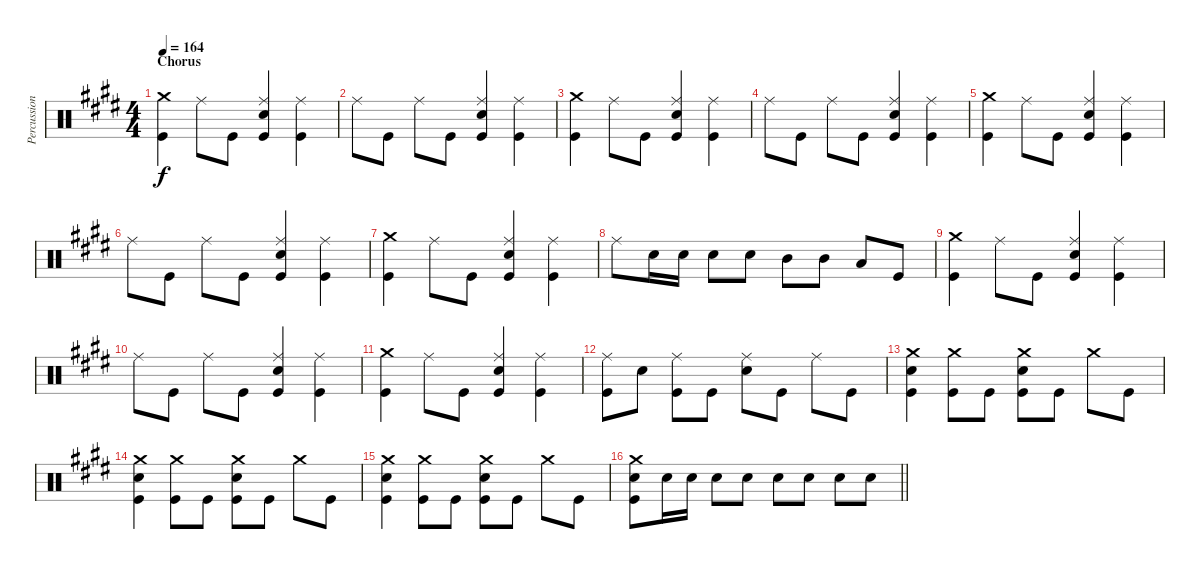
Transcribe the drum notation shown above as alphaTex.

\track ("Percussion" "Percussion") {instrument percussion}
\staff {score}
\articulation defaults
\ts (4 4)
\section ("" "Chorus")
\tempo 164
\clef neutral
\ks e
("Crash medium (hit)" "Kick (hit)").4{dy f volume 13} "Ride (middle)".8 "Kick (hit)".8 ("Ride (middle)" "Electric Snare (hit)" "Kick (hit)").4 ("Ride (middle)" "Kick (hit)").4 |
"Ride (middle)".8 "Kick (hit)".8 "Ride (middle)".8 "Kick (hit)".8 ("Ride (middle)" "Electric Snare (hit)" "Kick (hit)").4 ("Ride (middle)" "Kick (hit)").4 |
("Crash medium (hit)" "Kick (hit)").4 "Ride (middle)".8 "Kick (hit)".8 ("Ride (middle)" "Electric Snare (hit)" "Kick (hit)").4 ("Ride (middle)" "Kick (hit)").4 |
"Ride (middle)".8 "Kick (hit)".8 "Ride (middle)".8 "Kick (hit)".8 ("Ride (middle)" "Electric Snare (hit)" "Kick (hit)").4 ("Ride (middle)" "Kick (hit)").4 |
("Crash medium (hit)" "Kick (hit)").4 "Ride (middle)".8 "Kick (hit)".8 ("Ride (middle)" "Electric Snare (hit)" "Kick (hit)").4 ("Ride (middle)" "Kick (hit)").4 |
"Ride (middle)".8 "Kick (hit)".8 "Ride (middle)".8 "Kick (hit)".8 ("Ride (middle)" "Electric Snare (hit)" "Kick (hit)").4 ("Ride (middle)" "Kick (hit)").4 |
("Crash medium (hit)" "Kick (hit)").4 "Ride (middle)".8 "Kick (hit)".8 ("Ride (middle)" "Electric Snare (hit)" "Kick (hit)").4 ("Ride (middle)" "Kick (hit)").4 |
"Ride (middle)".8 "Electric Snare (hit)".16 "Electric Snare (hit)".16 "Electric Snare (hit)".8 "Electric Snare (hit)".8 "Mid Tom (hit)".8 "Mid Tom (hit)".8 "Low Tom (hit)".8 "Kick (hit)".8 |
("Crash medium (hit)" "Kick (hit)").4 "Ride (middle)".8 "Kick (hit)".8 ("Ride (middle)" "Electric Snare (hit)" "Kick (hit)").4 ("Ride (middle)" "Kick (hit)").4 |
"Ride (middle)".8 "Kick (hit)".8 "Ride (middle)".8 "Kick (hit)".8 ("Ride (middle)" "Electric Snare (hit)" "Kick (hit)").4 ("Ride (middle)" "Kick (hit)").4 |
("Crash medium (hit)" "Kick (hit)").4 "Ride (middle)".8 "Kick (hit)".8 ("Ride (middle)" "Electric Snare (hit)" "Kick (hit)").4 ("Ride (middle)" "Kick (hit)").4 |
("Ride (middle)" "Kick (hit)").8 "Electric Snare (hit)".8 ("Ride (middle)" "Kick (hit)").8 "Kick (hit)".8 ("Ride (middle)" "Electric Snare (hit)").8 "Kick (hit)".8 "Ride (middle)".8 "Kick (hit)".8 |
("Crash medium (hit)" "Electric Snare (hit)" "Kick (hit)").4 ("Crash medium (hit)" "Kick (hit)").8 "Kick (hit)".8 ("Crash medium (hit)" "Electric Snare (hit)" "Kick (hit)").8 "Kick (hit)".8 "Crash medium (hit)".8 "Kick (hit)".8 |
("Crash medium (hit)" "Electric Snare (hit)" "Kick (hit)").4 ("Crash medium (hit)" "Kick (hit)").8 "Kick (hit)".8 ("Crash medium (hit)" "Electric Snare (hit)" "Kick (hit)").8 "Kick (hit)".8 "Crash medium (hit)".8 "Kick (hit)".8 |
("Crash medium (hit)" "Electric Snare (hit)" "Kick (hit)").4 ("Crash medium (hit)" "Kick (hit)").8 "Kick (hit)".8 ("Crash medium (hit)" "Electric Snare (hit)" "Kick (hit)").8 "Kick (hit)".8 "Crash medium (hit)".8 "Kick (hit)".8 |
\barLineRight lightlight
("Crash medium (hit)" "Electric Snare (hit)" "Kick (hit)").8 "Electric Snare (hit)".16 "Electric Snare (hit)".16 "Electric Snare (hit)".8 "Electric Snare (hit)".8 "Electric Snare (hit)".8 "Electric Snare (hit)".8 "Electric Snare (hit)".8 "Electric Snare (hit)".8
